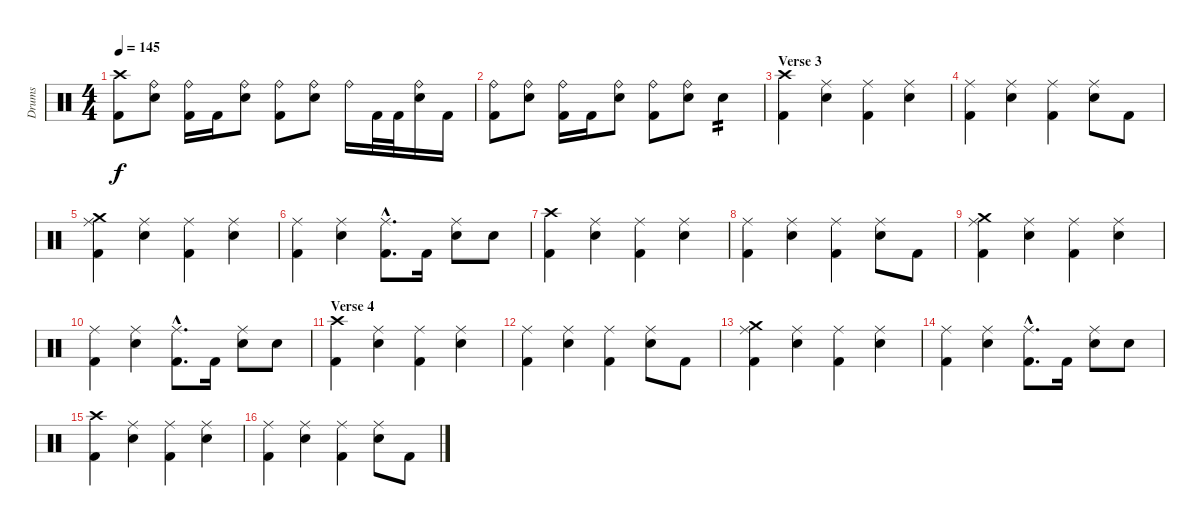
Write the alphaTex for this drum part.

\track ("Drums" "Drums") {instrument percussion}
\staff {score}
\articulation defaults
\ts (4 4)
\tempo 145
\clef neutral
\ks c
("Crash high (hit)" "Kick (hit) 2").8{dy f} ("Ride (bell)" "Electric Snare (hit)").8 ("Ride (bell)" "Kick (hit) 2").16 "Kick (hit) 2".16 ("Ride (bell)" "Electric Snare (hit)").8 ("Ride (bell)" "Kick (hit) 2").8 ("Ride (bell)" "Electric Snare (hit)").8 "Ride (bell)".16 "Kick (hit) 2".32 "Kick (hit) 2".32 ("Ride (bell)" "Electric Snare (hit)").16 "Kick (hit) 2".16 |
("Ride (bell)" "Kick (hit) 2").8 ("Ride (bell)" "Electric Snare (hit)").8 ("Ride (bell)" "Kick (hit) 2").16 "Kick (hit) 2".16 ("Ride (bell)" "Electric Snare (hit)").8 ("Ride (bell)" "Kick (hit) 2").8 ("Ride (bell)" "Electric Snare (hit)").8 "Electric Snare (hit)".4{tp 2} |
\section ("" "Verse 3")
("Crash high (hit)" "Kick (hit) 2").4 ("Ride (middle)" "Electric Snare (hit)").4 ("Ride (middle)" "Kick (hit) 2").4 ("Ride (middle)" "Electric Snare (hit)").4 |
("Ride (middle)" "Kick (hit) 2").4 ("Ride (middle)" "Electric Snare (hit)").4 ("Ride (middle)" "Kick (hit) 2").4 ("Ride (middle)" "Electric Snare (hit)").8 "Kick (hit) 2".8 |
("Crash medium (hit)" "Ride (middle)" "Kick (hit) 2").4 ("Ride (middle)" "Electric Snare (hit)").4 ("Ride (middle)" "Kick (hit) 2").4 ("Ride (middle)" "Electric Snare (hit)").4 |
("Ride (middle)" "Kick (hit) 2").4 ("Ride (middle)" "Electric Snare (hit)").4 ("Ride (middle)"{hac} "Kick (hit) 2"{hac}).8{d} "Kick (hit) 2".16 ("Ride (middle)" "Electric Snare (hit)").8 "Electric Snare (hit)".8 |
("Crash high (hit)" "Kick (hit) 2").4 ("Ride (middle)" "Electric Snare (hit)").4 ("Ride (middle)" "Kick (hit) 2").4 ("Ride (middle)" "Electric Snare (hit)").4 |
("Ride (middle)" "Kick (hit) 2").4 ("Ride (middle)" "Electric Snare (hit)").4 ("Ride (middle)" "Kick (hit) 2").4 ("Ride (middle)" "Electric Snare (hit)").8 "Kick (hit) 2".8 |
("Crash medium (hit)" "Ride (middle)" "Kick (hit) 2").4 ("Ride (middle)" "Electric Snare (hit)").4 ("Ride (middle)" "Kick (hit) 2").4 ("Ride (middle)" "Electric Snare (hit)").4 |
("Ride (middle)" "Kick (hit) 2").4 ("Ride (middle)" "Electric Snare (hit)").4 ("Ride (middle)"{hac} "Kick (hit) 2"{hac}).8{d} "Kick (hit) 2".16 ("Ride (middle)" "Electric Snare (hit)").8 "Electric Snare (hit)".8 |
\section ("" "Verse 4")
("Crash high (hit)" "Kick (hit) 2").4 ("Ride (middle)" "Electric Snare (hit)").4 ("Ride (middle)" "Kick (hit) 2").4 ("Ride (middle)" "Electric Snare (hit)").4 |
("Ride (middle)" "Kick (hit) 2").4 ("Ride (middle)" "Electric Snare (hit)").4 ("Ride (middle)" "Kick (hit) 2").4 ("Ride (middle)" "Electric Snare (hit)").8 "Kick (hit) 2".8 |
("Crash medium (hit)" "Ride (middle)" "Kick (hit) 2").4 ("Ride (middle)" "Electric Snare (hit)").4 ("Ride (middle)" "Kick (hit) 2").4 ("Ride (middle)" "Electric Snare (hit)").4 |
("Ride (middle)" "Kick (hit) 2").4 ("Ride (middle)" "Electric Snare (hit)").4 ("Ride (middle)"{hac} "Kick (hit) 2"{hac}).8{d} "Kick (hit) 2".16 ("Ride (middle)" "Electric Snare (hit)").8 "Electric Snare (hit)".8 |
("Crash high (hit)" "Kick (hit) 2").4 ("Ride (middle)" "Electric Snare (hit)").4 ("Ride (middle)" "Kick (hit) 2").4 ("Ride (middle)" "Electric Snare (hit)").4 |
("Ride (middle)" "Kick (hit) 2").4 ("Ride (middle)" "Electric Snare (hit)").4 ("Ride (middle)" "Kick (hit) 2").4 ("Ride (middle)" "Electric Snare (hit)").8 "Kick (hit) 2".8
